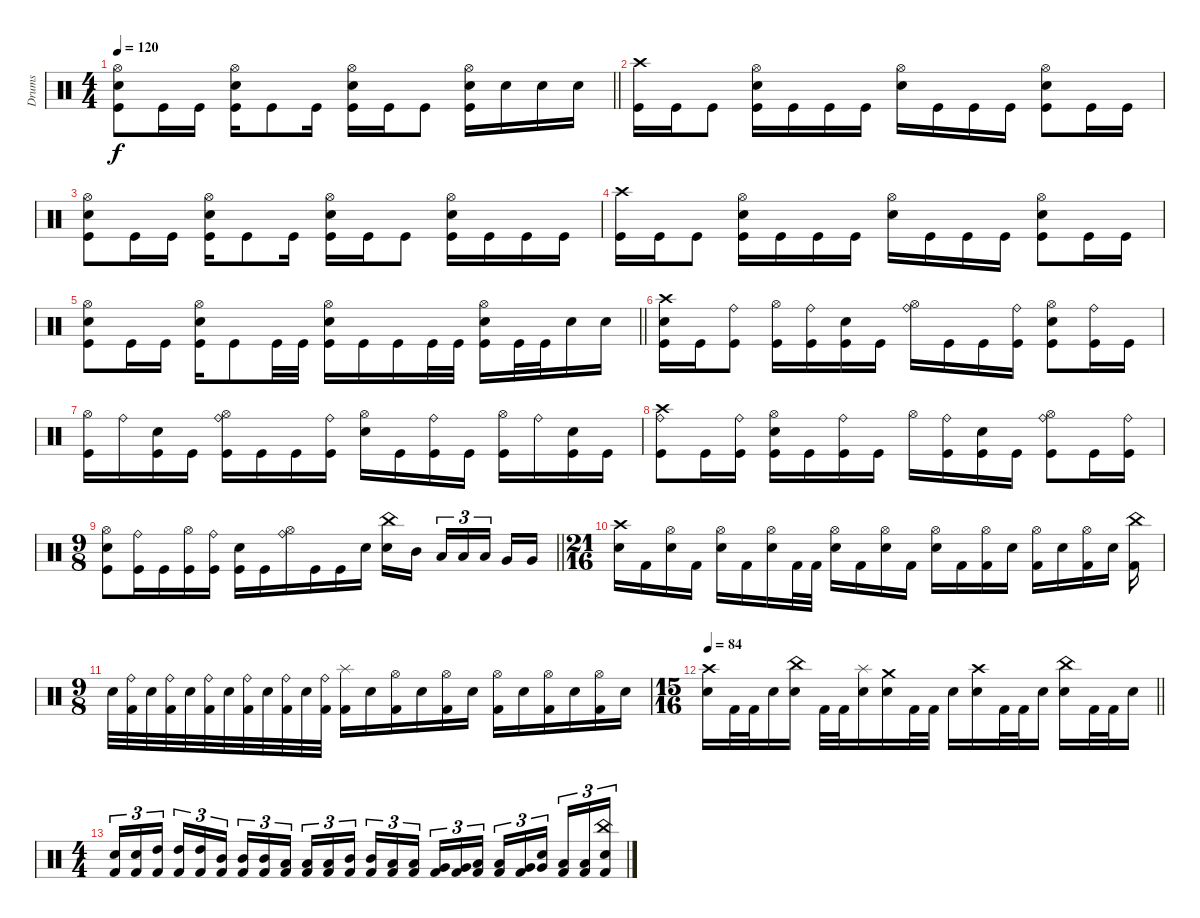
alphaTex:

\track ("Drums" "Drums") {instrument percussion}
\staff
\articulation defaults
\ts (4 4)
\tempo 120
\clef neutral
\barLineRight lightlight
\ks c
("Hi-Hat (open)" "Electric Snare (hit)" "Kick (hit)").8{dy f} "Kick (hit)".16 "Kick (hit)".16 ("Hi-Hat (open)" "Electric Snare (hit)" "Kick (hit)").16 "Kick (hit)".8 "Kick (hit)".16 ("Hi-Hat (open)" "Electric Snare (hit)" "Kick (hit)").16 "Kick (hit)".16 "Kick (hit)".8 ("Hi-Hat (open)" "Electric Snare (hit)" "Kick (hit)").16 "Electric Snare (hit)".16 "Electric Snare (hit)".16 "Electric Snare (hit)".16 |
("Crash high (hit)" "Kick (hit)").16 "Kick (hit)".16 "Kick (hit)".8 ("Hi-Hat (open)" "Electric Snare (hit)" "Kick (hit)").16 "Kick (hit)".16 "Kick (hit)".16 "Kick (hit)".16 ("Hi-Hat (open)" "Electric Snare (hit)").16 "Kick (hit)".16 "Kick (hit)".16 "Kick (hit)".16 ("Hi-Hat (open)" "Electric Snare (hit)" "Kick (hit)").8 "Kick (hit)".16 "Kick (hit)".16 |
("Hi-Hat (open)" "Electric Snare (hit)" "Kick (hit)").8 "Kick (hit)".16 "Kick (hit)".16 ("Hi-Hat (open)" "Electric Snare (hit)" "Kick (hit)").16 "Kick (hit)".8 "Kick (hit)".16 ("Hi-Hat (open)" "Electric Snare (hit)" "Kick (hit)").16 "Kick (hit)".16 "Kick (hit)".8 ("Hi-Hat (open)" "Electric Snare (hit)" "Kick (hit)").16 "Kick (hit)".16 "Kick (hit)".16 "Kick (hit)".16 |
("Crash high (hit)" "Kick (hit)").16 "Kick (hit)".16 "Kick (hit)".8 ("Hi-Hat (open)" "Electric Snare (hit)" "Kick (hit)").16 "Kick (hit)".16 "Kick (hit)".16 "Kick (hit)".16 ("Hi-Hat (open)" "Electric Snare (hit)").16 "Kick (hit)".16 "Kick (hit)".16 "Kick (hit)".16 ("Hi-Hat (open)" "Electric Snare (hit)" "Kick (hit)").8 "Kick (hit)".16 "Kick (hit)".16 |
\barLineRight lightlight
("Hi-Hat (open)" "Electric Snare (hit)" "Kick (hit)").8 "Kick (hit)".16 "Kick (hit)".16 ("Hi-Hat (open)" "Electric Snare (hit)" "Kick (hit)").16 "Kick (hit)".8 "Kick (hit)".32 "Kick (hit)".32 ("Hi-Hat (open)" "Electric Snare (hit)" "Kick (hit)").16 "Kick (hit)".16 "Kick (hit)".16 "Kick (hit)".32 "Kick (hit)".32 ("Hi-Hat (open)" "Electric Snare (hit)" "Kick (hit)").16 "Kick (hit)".32 "Kick (hit)".32 "Electric Snare (hit)".16 "Electric Snare (hit)".16 |
\section ("" "")
("Crash high (hit)" "Electric Snare (hit)" "Kick (hit)").16 "Kick (hit)".16 ("Ride (bell)" "Kick (hit)").8 ("Hi-Hat (open)" "Kick (hit)").16 ("Ride (bell)" "Kick (hit)").16 ("Electric Snare (hit)" "Kick (hit)").16 "Kick (hit)".16 ("Ride (bell)" "Hi-Hat (open)").16 "Kick (hit)".16 "Kick (hit)".16 ("Ride (bell)" "Kick (hit)").16 ("Hi-Hat (open)" "Electric Snare (hit)" "Kick (hit)").8 ("Ride (bell)" "Kick (hit)").16 "Kick (hit)".16 |
("Hi-Hat (open)" "Kick (hit)").16 "Ride (bell)".16 ("Electric Snare (hit)" "Kick (hit)").16 "Kick (hit)".16 ("Ride (bell)" "Hi-Hat (open)" "Kick (hit)").16 "Kick (hit)".16 "Kick (hit)".16 ("Ride (bell)" "Kick (hit)").16 ("Hi-Hat (open)" "Electric Snare (hit)").16 "Kick (hit)".16 ("Ride (bell)" "Kick (hit)").16 "Kick (hit)".16 ("Hi-Hat (open)" "Kick (hit)").16 "Ride (bell)".16 ("Electric Snare (hit)" "Kick (hit)").16 "Kick (hit)".16 |
("Crash high (hit)" "Ride (bell)" "Kick (hit)").8 "Kick (hit)".16 ("Ride (bell)" "Kick (hit)").16 ("Hi-Hat (open)" "Electric Snare (hit)" "Kick (hit)").16 "Kick (hit)".16 ("Ride (bell)" "Kick (hit)").16 "Kick (hit)".16 "Hi-Hat (open)".16 ("Ride (bell)" "Kick (hit)").16 ("Electric Snare (hit)" "Kick (hit)").16 "Kick (hit)".16 ("Ride (bell)" "Hi-Hat (open)" "Kick (hit)").8 "Kick (hit)".16 ("Ride (bell)" "Kick (hit)").16 |
\ts (9 8)
\barLineRight lightlight
("Hi-Hat (open)" "Electric Snare (hit)" "Kick (hit)").8 ("Ride (bell)" "Kick (hit)").16 "Kick (hit)".16 ("Hi-Hat (open)" "Kick (hit)").16 ("Ride (bell)" "Kick (hit)").16 ("Electric Snare (hit)" "Kick (hit)").16 "Kick (hit)".16 ("Ride (bell)" "Hi-Hat (open)").16 "Kick (hit)".16 "Kick (hit)".16 "Electric Snare (hit)".16 ("China (hit)" "Electric Snare (hit)").16 "Mid Tom (hit)".16{beam splitsecondary} "Low Tom (hit)".16{tu (3 2)} "Low Tom (hit)".16{tu (3 2)} "Low Tom (hit)".16{tu (3 2) beam splitsecondary} "Very Low Tom (hit)".16 "Very Low Tom (hit)".16 |
\ts (21 16)
("Crash high (hit)" "Electric Snare (hit)").16 "Kick (hit) 2".16 ("Hi-Hat (open)" "Electric Snare (hit)").16 "Kick (hit) 2".16 ("Hi-Hat (open)" "Electric Snare (hit)").16 "Kick (hit) 2".16 ("Hi-Hat (open)" "Electric Snare (hit)").16 "Kick (hit) 2".32 "Kick (hit) 2".32 ("Hi-Hat (open)" "Electric Snare (hit)").16 "Kick (hit) 2".16 ("Hi-Hat (open)" "Electric Snare (hit)").16 "Kick (hit) 2".16 ("Hi-Hat (open)" "Electric Snare (hit)").16 "Kick (hit) 2".16 ("Hi-Hat (open)" "Kick (hit) 2").16 "Electric Snare (hit)".16 ("Hi-Hat (open)" "Kick (hit) 2").16 "Electric Snare (hit)".16 ("Hi-Hat (open)" "Kick (hit) 2").16 "Electric Snare (hit)".16 ("China (hit)" "Kick (hit) 2").16 |
\ts (9 8)
"Electric Snare (hit)".32 ("Ride (bell)" "Kick (hit) 2").32 "Electric Snare (hit)".32 ("Ride (bell)" "Kick (hit) 2").32 "Electric Snare (hit)".32 ("Ride (bell)" "Kick (hit) 2").32 "Electric Snare (hit)".32 ("Ride (bell)" "Kick (hit) 2").32 "Electric Snare (hit)".32 ("Ride (bell)" "Kick (hit) 2").32 "Electric Snare (hit)".32 ("Ride (bell)" "Kick (hit) 2").32 ("Splash (hit)" "Kick (hit) 2").16 "Electric Snare (hit)".16 ("Hi-Hat (open)" "Kick (hit) 2").16 "Electric Snare (hit)".16 ("Hi-Hat (open)" "Kick (hit) 2").16 "Electric Snare (hit)".16 ("Hi-Hat (open)" "Kick (hit) 2").16 "Electric Snare (hit)".16 ("Hi-Hat (open)" "Kick (hit) 2").16 "Electric Snare (hit)".16 ("Hi-Hat (open)" "Kick (hit) 2").16 "Electric Snare (hit)".16 |
\ts (15 16)
\tempo 84
\barLineRight lightlight
("Crash high (hit)" "Electric Snare (hit)").16 "Kick (hit) 2".32 "Kick (hit) 2".32 "Electric Snare (hit)".16 ("China (hit)" "Electric Snare (hit)").16 "Kick (hit) 2".32 "Kick (hit) 2".32 ("Splash (hit)" "Electric Snare (hit)").16 ("Crash medium (hit)" "Electric Snare (hit)").16 "Kick (hit) 2".32 "Kick (hit) 2".32 "Electric Snare (hit)".16 ("Crash high (hit)" "Electric Snare (hit)").16 "Kick (hit) 2".32 "Kick (hit) 2".32 "Electric Snare (hit)".16 ("China (hit)" "Electric Snare (hit)").16 "Kick (hit) 2".32 "Kick (hit) 2".32 "Electric Snare (hit)".16 |
\ts (4 4)
("Electric Snare (hit)" "Kick (hit) 2").16{tu (3 2)} ("Electric Snare (hit)" "Kick (hit) 2").16{tu (3 2)} ("High Tom (hit)" "Kick (hit) 2").16{tu (3 2) beam splitsecondary} ("High Tom (hit)" "Kick (hit) 2").16{tu (3 2)} ("High Tom (hit)" "Kick (hit) 2").16{tu (3 2)} ("Mid Tom (hit)" "Kick (hit) 2").16{tu (3 2)} ("Mid Tom (hit)" "Kick (hit) 2").16{tu (3 2)} ("Mid Tom (hit)" "Kick (hit) 2").16{tu (3 2)} ("Low Tom (hit)" "Kick (hit) 2").16{tu (3 2) beam splitsecondary} ("Low Tom (hit)" "Kick (hit) 2").16{tu (3 2)} ("Low Tom (hit)" "Kick (hit) 2").16{tu (3 2)} ("Mid Tom (hit)" "Kick (hit) 2").16{tu (3 2)} ("Mid Tom (hit)" "Kick (hit) 2").16{tu (3 2)} ("Low Tom (hit)" "Kick (hit) 2").16{tu (3 2)} ("Low Tom (hit)" "Kick (hit) 2").16{tu (3 2) beam splitsecondary} ("Very Low Tom (hit)" "Kick (hit) 2").16{tu (3 2)} ("Very Low Tom (hit)" "Kick (hit) 2").16{tu (3 2)} ("Low Tom (hit)" "Kick (hit) 2").16{tu (3 2)} ("Low Tom (hit)" "Kick (hit) 2").16{tu (3 2)} ("Very Low Tom (hit)" "Kick (hit) 2").16{tu (3 2)} ("Very Low Tom (hit)" "Snare (hit)").16{tu (3 2) beam splitsecondary} ("Low Floor Tom (hit)" "Kick (hit) 2").16{tu (3 2)} ("Low Floor Tom (hit)" "Kick (hit) 2").16{tu (3 2)} ("China (hit)" "Electric Snare (hit)" "Kick (hit) 2").16{tu (3 2)}
